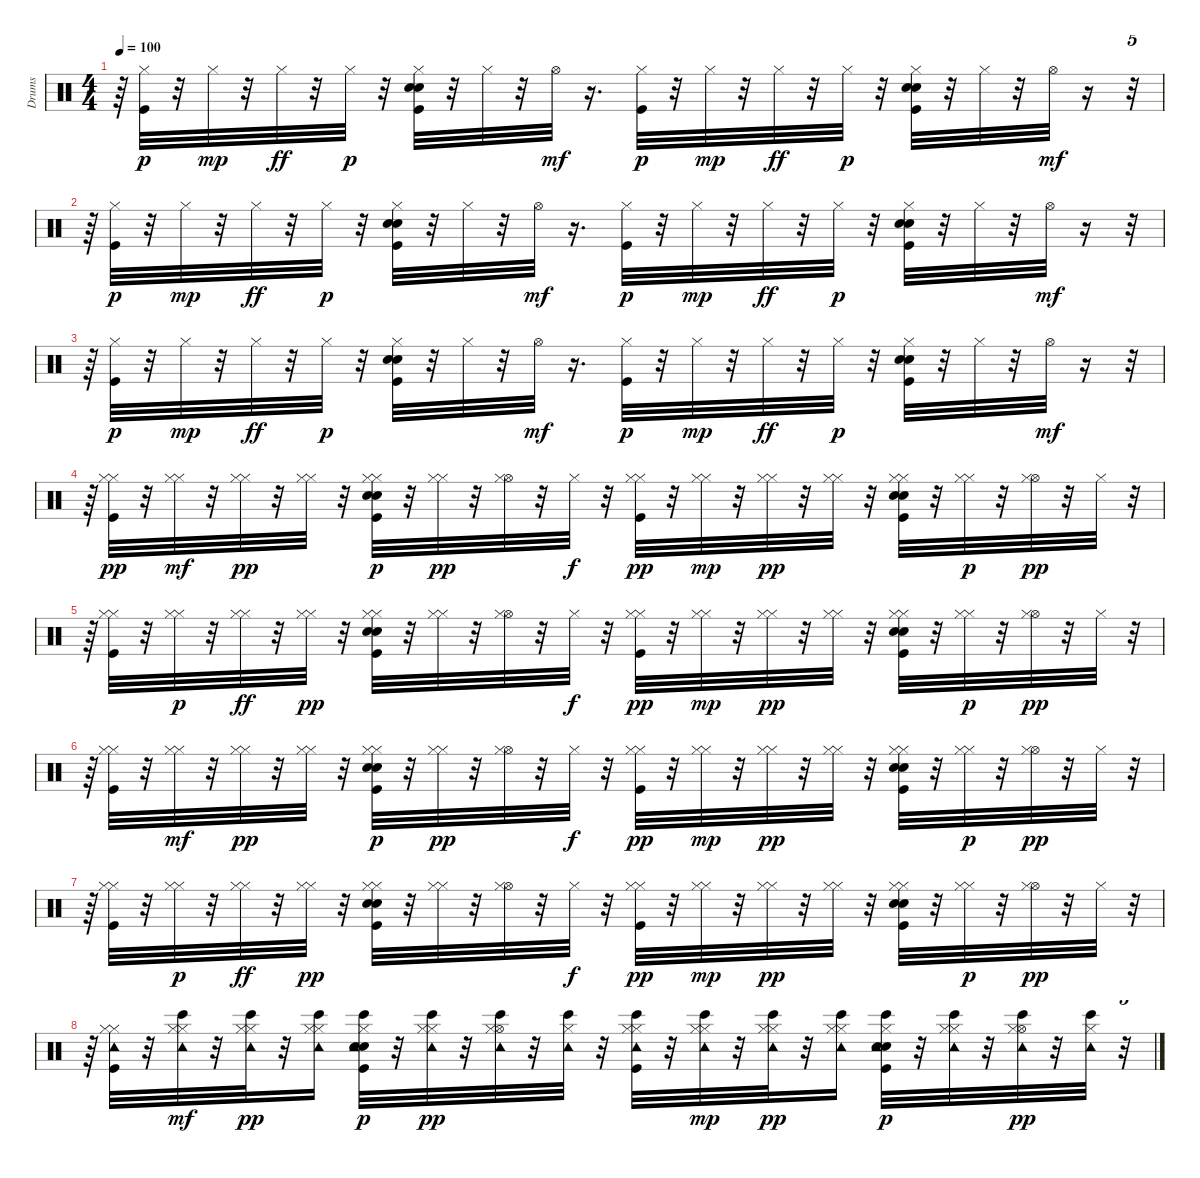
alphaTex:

\track ("Drums" "Drums") {instrument percussion}
\staff {score}
\articulation defaults
\ts (4 4)
\tempo 100
\clef neutral
\ks c
r.64{dy mf} ("Kick (hit)" "Hi-Hat (closed)").32{dy p} r.32 "Hi-Hat (closed)".32{dy mp} r.32 "Hi-Hat (closed)".32{dy ff} r.32 "Hi-Hat (closed)".32{dy p} r.32 ("Hand Clap (hit)" "Snare (hit) 2" "Kick (hit)" "Hi-Hat (closed)").32 r.32 "Hi-Hat (closed)".32 r.32 "Hi-Hat (open)".32{dy mf} r.16{d} ("Kick (hit)" "Hi-Hat (closed)").32{dy p} r.32 "Hi-Hat (closed)".32{dy mp} r.32 "Hi-Hat (closed)".32{dy ff} r.32 "Hi-Hat (closed)".32{dy p} r.32 ("Hand Clap (hit)" "Snare (hit) 2" "Kick (hit)" "Hi-Hat (closed)").32 r.32 "Hi-Hat (closed)".32 r.32 "Hi-Hat (open)".32{dy mf} r.16 r.32{tu (5 4)} |
r.64 ("Kick (hit)" "Hi-Hat (closed)").32{dy p} r.32 "Hi-Hat (closed)".32{dy mp} r.32 "Hi-Hat (closed)".32{dy ff} r.32 "Hi-Hat (closed)".32{dy p} r.32 ("Hand Clap (hit)" "Snare (hit) 2" "Kick (hit)" "Hi-Hat (closed)").32 r.32 "Hi-Hat (closed)".32 r.32 "Hi-Hat (open)".32{dy mf} r.16{d} ("Kick (hit)" "Hi-Hat (closed)").32{dy p} r.32 "Hi-Hat (closed)".32{dy mp} r.32 "Hi-Hat (closed)".32{dy ff} r.32 "Hi-Hat (closed)".32{dy p} r.32 ("Hand Clap (hit)" "Snare (hit) 2" "Kick (hit)" "Hi-Hat (closed)").32 r.32 "Hi-Hat (closed)".32 r.32 "Hi-Hat (open)".32{dy mf} r.16 r.32{tu (5 4)} |
r.64 ("Kick (hit)" "Hi-Hat (closed)").32{dy p} r.32 "Hi-Hat (closed)".32{dy mp} r.32 "Hi-Hat (closed)".32{dy ff} r.32 "Hi-Hat (closed)".32{dy p} r.32 ("Hand Clap (hit)" "Snare (hit) 2" "Kick (hit)" "Hi-Hat (closed)").32 r.32 "Hi-Hat (closed)".32 r.32 "Hi-Hat (open)".32{dy mf} r.16{d} ("Kick (hit)" "Hi-Hat (closed)").32{dy p} r.32 "Hi-Hat (closed)".32{dy mp} r.32 "Hi-Hat (closed)".32{dy ff} r.32 "Hi-Hat (closed)".32{dy p} r.32 ("Hand Clap (hit)" "Snare (hit) 2" "Kick (hit)" "Hi-Hat (closed)").32 r.32 "Hi-Hat (closed)".32 r.32 "Hi-Hat (open)".32{dy mf} r.16 r.32{tu (5 4)} |
r.64 ("Kick (hit)" "Hi-Hat (closed)" "Hi-Hat (closed)").32{dy pp} r.32 ("Hi-Hat (closed)" "Hi-Hat (closed)").32{dy mf} r.32 ("Hi-Hat (closed)" "Hi-Hat (closed)").32{dy pp} r.32 ("Hi-Hat (closed)" "Hi-Hat (closed)").32 r.32 ("Hand Clap (hit)" "Snare (hit) 2" "Kick (hit)" "Hi-Hat (closed)" "Hi-Hat (closed)").32{dy p} r.32 ("Hi-Hat (closed)" "Hi-Hat (closed)").32{dy pp} r.32 ("Hi-Hat (open)" "Hi-Hat (closed)").32 r.32 "Hi-Hat (closed)".32{dy f} r.32 ("Kick (hit)" "Hi-Hat (closed)" "Hi-Hat (closed)").32{dy pp} r.32 ("Hi-Hat (closed)" "Hi-Hat (closed)").32{dy mp} r.32 ("Hi-Hat (closed)" "Hi-Hat (closed)").32{dy pp} r.32 ("Hi-Hat (closed)" "Hi-Hat (closed)").32 r.32 ("Hand Clap (hit)" "Snare (hit) 2" "Kick (hit)" "Hi-Hat (closed)" "Hi-Hat (closed)").32 r.32 ("Hi-Hat (closed)" "Hi-Hat (closed)").32{dy p} r.32 ("Hi-Hat (open)" "Hi-Hat (closed)").32{dy pp} r.32 "Hi-Hat (closed)".32 r.32{tu (5 4)} |
r.64 ("Kick (hit)" "Hi-Hat (closed)" "Hi-Hat (closed)").32 r.32 ("Hi-Hat (closed)" "Hi-Hat (closed)").32{dy p} r.32 ("Hi-Hat (closed)" "Hi-Hat (closed)").32{dy ff} r.32 ("Hi-Hat (closed)" "Hi-Hat (closed)").32{dy pp} r.32 ("Hand Clap (hit)" "Snare (hit) 2" "Kick (hit)" "Hi-Hat (closed)" "Hi-Hat (closed)").32 r.32 ("Hi-Hat (closed)" "Hi-Hat (closed)").32 r.32 ("Hi-Hat (open)" "Hi-Hat (closed)").32 r.32 "Hi-Hat (closed)".32{dy f} r.32 ("Kick (hit)" "Hi-Hat (closed)" "Hi-Hat (closed)").32{dy pp} r.32 ("Hi-Hat (closed)" "Hi-Hat (closed)").32{dy mp} r.32 ("Hi-Hat (closed)" "Hi-Hat (closed)").32{dy pp} r.32 ("Hi-Hat (closed)" "Hi-Hat (closed)").32 r.32 ("Hand Clap (hit)" "Snare (hit) 2" "Kick (hit)" "Hi-Hat (closed)" "Hi-Hat (closed)").32 r.32 ("Hi-Hat (closed)" "Hi-Hat (closed)").32{dy p} r.32 ("Hi-Hat (open)" "Hi-Hat (closed)").32{dy pp} r.32 "Hi-Hat (closed)".32 r.32{tu (5 4)} |
r.64 ("Kick (hit)" "Hi-Hat (closed)" "Hi-Hat (closed)").32 r.32 ("Hi-Hat (closed)" "Hi-Hat (closed)").32{dy mf} r.32 ("Hi-Hat (closed)" "Hi-Hat (closed)").32{dy pp} r.32 ("Hi-Hat (closed)" "Hi-Hat (closed)").32 r.32 ("Hand Clap (hit)" "Snare (hit) 2" "Kick (hit)" "Hi-Hat (closed)" "Hi-Hat (closed)").32{dy p} r.32 ("Hi-Hat (closed)" "Hi-Hat (closed)").32{dy pp} r.32 ("Hi-Hat (open)" "Hi-Hat (closed)").32 r.32 "Hi-Hat (closed)".32{dy f} r.32 ("Kick (hit)" "Hi-Hat (closed)" "Hi-Hat (closed)").32{dy pp} r.32 ("Hi-Hat (closed)" "Hi-Hat (closed)").32{dy mp} r.32 ("Hi-Hat (closed)" "Hi-Hat (closed)").32{dy pp} r.32 ("Hi-Hat (closed)" "Hi-Hat (closed)").32 r.32 ("Hand Clap (hit)" "Snare (hit) 2" "Kick (hit)" "Hi-Hat (closed)" "Hi-Hat (closed)").32 r.32 ("Hi-Hat (closed)" "Hi-Hat (closed)").32{dy p} r.32 ("Hi-Hat (open)" "Hi-Hat (closed)").32{dy pp} r.32 "Hi-Hat (closed)".32 r.32{tu (5 4)} |
r.64 ("Kick (hit)" "Hi-Hat (closed)" "Hi-Hat (closed)").32 r.32 ("Hi-Hat (closed)" "Hi-Hat (closed)").32{dy p} r.32 ("Hi-Hat (closed)" "Hi-Hat (closed)").32{dy ff} r.32 ("Hi-Hat (closed)" "Hi-Hat (closed)").32{dy pp} r.32 ("Hand Clap (hit)" "Snare (hit) 2" "Kick (hit)" "Hi-Hat (closed)" "Hi-Hat (closed)").32 r.32 ("Hi-Hat (closed)" "Hi-Hat (closed)").32 r.32 ("Hi-Hat (open)" "Hi-Hat (closed)").32 r.32 "Hi-Hat (closed)".32{dy f} r.32 ("Kick (hit)" "Hi-Hat (closed)" "Hi-Hat (closed)").32{dy pp} r.32 ("Hi-Hat (closed)" "Hi-Hat (closed)").32{dy mp} r.32 ("Hi-Hat (closed)" "Hi-Hat (closed)").32{dy pp} r.32 ("Hi-Hat (closed)" "Hi-Hat (closed)").32 r.32 ("Hand Clap (hit)" "Snare (hit) 2" "Kick (hit)" "Hi-Hat (closed)" "Hi-Hat (closed)").32 r.32 ("Hi-Hat (closed)" "Hi-Hat (closed)").32{dy p} r.32 ("Hi-Hat (open)" "Hi-Hat (closed)").32{dy pp} r.32 "Hi-Hat (closed)".32 r.32{tu (5 4)} |
r.64 ("Tambourine (hit)" "Kick (hit)" "Hi-Hat (closed)" "Hi-Hat (closed)").32 r.32 ("Bongo High (hit)" "Tambourine (hit)" "Hi-Hat (closed)" "Hi-Hat (closed)").32{dy mf} r.32 ("Bongo High (hit)" "Tambourine (hit)" "Hi-Hat (closed)" "Hi-Hat (closed)").32{dy pp} r.32 ("Bongo High (hit)" "Tambourine (hit)" "Hi-Hat (closed)" "Hi-Hat (closed)").16 ("Hand Clap (hit)" "Snare (hit) 2" "Bongo High (hit)" "Tambourine (hit)" "Kick (hit)" "Hi-Hat (closed)").32{dy p} r.32 ("Bongo High (hit)" "Tambourine (hit)" "Hi-Hat (closed)" "Hi-Hat (closed)").32{dy pp} r.32 ("Bongo High (hit)" "Tambourine (hit)" "Hi-Hat (open)" "Hi-Hat (closed)").32 r.32 ("Bongo High (hit)" "Tambourine (hit)" "Hi-Hat (closed)").32 r.32 ("Bongo High (hit)" "Tambourine (hit)" "Kick (hit)" "Hi-Hat (closed)" "Hi-Hat (closed)").32 r.32 ("Bongo High (hit)" "Tambourine (hit)" "Hi-Hat (closed)" "Hi-Hat (closed)").32{dy mp} r.32 ("Bongo High (hit)" "Tambourine (hit)" "Hi-Hat (closed)" "Hi-Hat (closed)").32{dy pp} r.32 ("Bongo High (hit)" "Tambourine (hit)" "Hi-Hat (closed)" "Hi-Hat (closed)").16 ("Hand Clap (hit)" "Snare (hit) 2" "Bongo High (hit)" "Tambourine (hit)" "Kick (hit)" "Hi-Hat (closed)").32{dy p} r.32 ("Bongo High (hit)" "Tambourine (hit)" "Hi-Hat (closed)" "Hi-Hat (closed)").32 r.32 ("Bongo High (hit)" "Tambourine (hit)" "Hi-Hat (open)" "Hi-Hat (closed)").32{dy pp} r.32 ("Bongo High (hit)" "Tambourine (hit)" "Hi-Hat (closed)").32 r.32{tu (5 4)}
